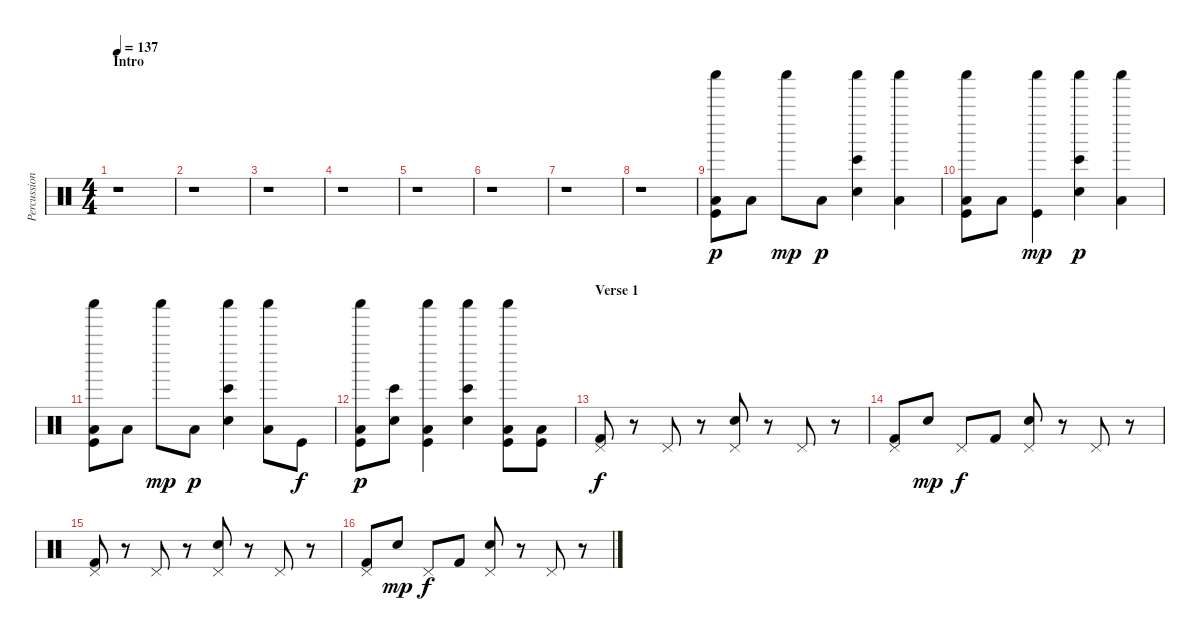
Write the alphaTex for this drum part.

\track ("Percussions" "Percussion") {instrument percussion}
\staff {score}
\articulation defaults
\ts (4 4)
\section ("" "Intro")
\tempo 137
\clef neutral
\ks c
r.1{dy p} |
r.1 |
r.1 |
r.1 |
r.1 |
r.1 |
r.1 |
r.1 |
("Shaker (hit)" "Low Floor Tom (hit)" "Kick (hit)").8 "Low Floor Tom (hit)".8 "Shaker (hit)".8{dy mp} "Low Floor Tom (hit)".8{dy p} ("Shaker (hit)" "Bongo High (hit)" "Electric Snare (hit)").4 ("Shaker (hit)" "Low Floor Tom (hit)").4 |
("Shaker (hit)" "Low Floor Tom (hit)" "Kick (hit)").8 "Low Floor Tom (hit)".8 ("Shaker (hit)" "Kick (hit)").4{dy mp} ("Shaker (hit)" "Bongo High (hit)" "Electric Snare (hit)").4{dy p} ("Shaker (hit)" "Low Floor Tom (hit)").4 |
("Shaker (hit)" "Low Floor Tom (hit)" "Kick (hit)").8 "Low Floor Tom (hit)".8 "Shaker (hit)".8{dy mp} "Low Floor Tom (hit)".8{dy p} ("Shaker (hit)" "Bongo High (hit)" "Electric Snare (hit)").4 ("Shaker (hit)" "Low Floor Tom (hit)").8 "Kick (hit)".8{dy f} |
("Shaker (hit)" "Low Floor Tom (hit)" "Kick (hit)").8{dy p} ("Bongo High (hit)" "Electric Snare (hit)").8 ("Shaker (hit)" "Low Floor Tom (hit)" "Kick (hit)").4 ("Shaker (hit)" "Bongo High (hit)" "Electric Snare (hit)").4 ("Shaker (hit)" "Low Floor Tom (hit)" "Kick (hit)").8 ("Low Floor Tom (hit)" "Kick (hit)").8 |
\section ("" "Verse 1")
("Pedal Hi-Hat (hit)" "Kick (hit) 2").8{dy f} r.8 "Pedal Hi-Hat (hit)".8 r.8 ("Pedal Hi-Hat (hit)" "Electric Snare (hit)").8 r.8 "Pedal Hi-Hat (hit)".8 r.8 |
("Pedal Hi-Hat (hit)" "Kick (hit) 2").8 "Electric Snare (hit)".8{dy mp} "Pedal Hi-Hat (hit)".8{dy f} "Kick (hit) 2".8 ("Pedal Hi-Hat (hit)" "Electric Snare (hit)").8 r.8 "Pedal Hi-Hat (hit)".8 r.8 |
("Pedal Hi-Hat (hit)" "Kick (hit) 2").8 r.8 "Pedal Hi-Hat (hit)".8 r.8 ("Pedal Hi-Hat (hit)" "Electric Snare (hit)").8 r.8 "Pedal Hi-Hat (hit)".8 r.8 |
("Pedal Hi-Hat (hit)" "Kick (hit) 2").8 "Electric Snare (hit)".8{dy mp} "Pedal Hi-Hat (hit)".8{dy f} "Kick (hit) 2".8 ("Pedal Hi-Hat (hit)" "Electric Snare (hit)").8 r.8 "Pedal Hi-Hat (hit)".8 r.8
